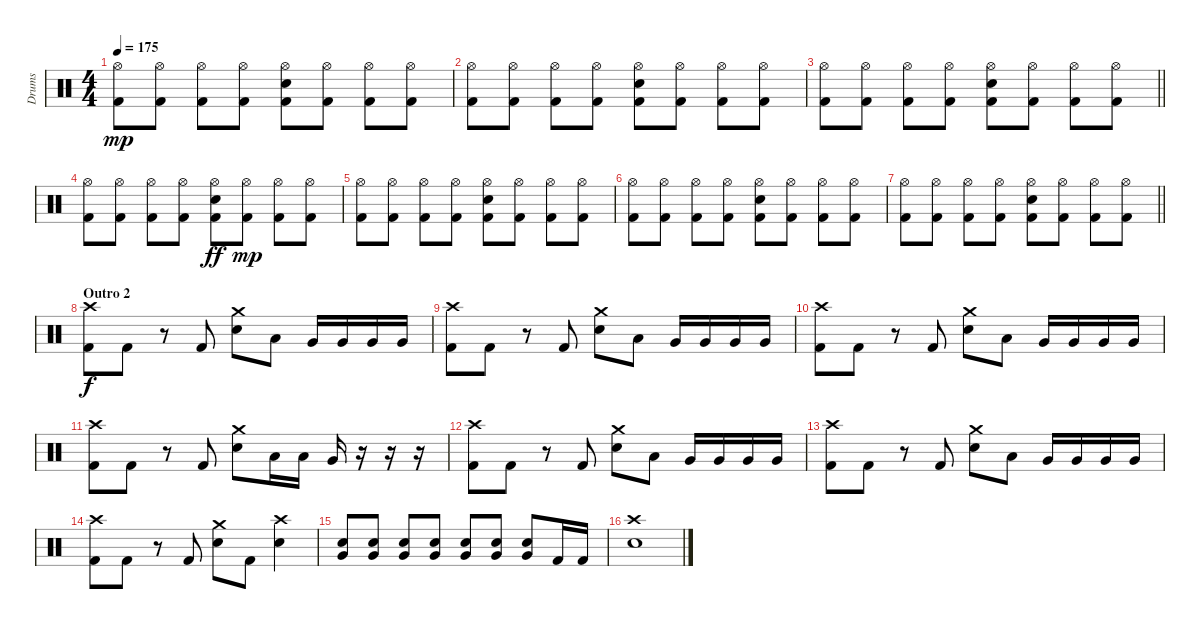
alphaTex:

\track ("Drums" "Drums") {instrument percussion}
\staff {score}
\articulation defaults
\ts (4 4)
\tempo 175
\clef neutral
\ks c
("Hi-Hat (open)" "Kick (hit) 2").8{dy mp} ("Hi-Hat (open)" "Kick (hit) 2").8 ("Hi-Hat (open)" "Kick (hit) 2").8 ("Hi-Hat (open)" "Kick (hit) 2").8 ("Hi-Hat (open)" "Electric Snare (hit)" "Kick (hit) 2").8 ("Hi-Hat (open)" "Kick (hit) 2").8 ("Hi-Hat (open)" "Kick (hit) 2").8 ("Hi-Hat (open)" "Kick (hit) 2").8 |
("Hi-Hat (open)" "Kick (hit) 2").8 ("Hi-Hat (open)" "Kick (hit) 2").8 ("Hi-Hat (open)" "Kick (hit) 2").8 ("Hi-Hat (open)" "Kick (hit) 2").8 ("Hi-Hat (open)" "Electric Snare (hit)" "Kick (hit) 2").8 ("Hi-Hat (open)" "Kick (hit) 2").8 ("Hi-Hat (open)" "Kick (hit) 2").8 ("Hi-Hat (open)" "Kick (hit) 2").8 |
\barLineRight lightlight
("Hi-Hat (open)" "Kick (hit) 2").8 ("Hi-Hat (open)" "Kick (hit) 2").8 ("Hi-Hat (open)" "Kick (hit) 2").8 ("Hi-Hat (open)" "Kick (hit) 2").8 ("Hi-Hat (open)" "Electric Snare (hit)" "Kick (hit) 2").8 ("Hi-Hat (open)" "Kick (hit) 2").8 ("Hi-Hat (open)" "Kick (hit) 2").8 ("Hi-Hat (open)" "Kick (hit) 2").8 |
("Hi-Hat (open)" "Kick (hit) 2").8 ("Hi-Hat (open)" "Kick (hit) 2").8 ("Hi-Hat (open)" "Kick (hit) 2").8 ("Hi-Hat (open)" "Kick (hit) 2").8 ("Hi-Hat (open)" "Electric Snare (hit)" "Kick (hit) 2").8{dy ff} ("Hi-Hat (open)" "Kick (hit) 2").8{dy mp} ("Hi-Hat (open)" "Kick (hit) 2").8 ("Hi-Hat (open)" "Kick (hit) 2").8 |
("Hi-Hat (open)" "Kick (hit) 2").8 ("Hi-Hat (open)" "Kick (hit) 2").8 ("Hi-Hat (open)" "Kick (hit) 2").8 ("Hi-Hat (open)" "Kick (hit) 2").8 ("Hi-Hat (open)" "Electric Snare (hit)" "Kick (hit) 2").8 ("Hi-Hat (open)" "Kick (hit) 2").8 ("Hi-Hat (open)" "Kick (hit) 2").8 ("Hi-Hat (open)" "Kick (hit) 2").8 |
("Hi-Hat (open)" "Kick (hit) 2").8 ("Hi-Hat (open)" "Kick (hit) 2").8 ("Hi-Hat (open)" "Kick (hit) 2").8 ("Hi-Hat (open)" "Kick (hit) 2").8 ("Hi-Hat (open)" "Electric Snare (hit)" "Kick (hit) 2").8 ("Hi-Hat (open)" "Kick (hit) 2").8 ("Hi-Hat (open)" "Kick (hit) 2").8 ("Hi-Hat (open)" "Kick (hit) 2").8 |
\barLineRight lightlight
("Hi-Hat (open)" "Kick (hit) 2").8 ("Hi-Hat (open)" "Kick (hit) 2").8 ("Hi-Hat (open)" "Kick (hit) 2").8 ("Hi-Hat (open)" "Kick (hit) 2").8 ("Hi-Hat (open)" "Electric Snare (hit)" "Kick (hit) 2").8 ("Hi-Hat (open)" "Kick (hit) 2").8 ("Hi-Hat (open)" "Kick (hit) 2").8 ("Hi-Hat (open)" "Kick (hit) 2").8 |
\section ("" "Outro 2")
("Crash high (hit)" "Kick (hit) 2").8{dy f} "Kick (hit) 2".8 r.8 "Kick (hit) 2".8 ("Crash medium (hit)" "Electric Snare (hit)").8 "Low Tom (hit)".8 "Very Low Tom (hit)".16 "Very Low Tom (hit)".16 "Very Low Tom (hit)".16 "Very Low Tom (hit)".16 |
("Crash high (hit)" "Kick (hit) 2").8 "Kick (hit) 2".8 r.8 "Kick (hit) 2".8 ("Crash medium (hit)" "Electric Snare (hit)").8 "Low Tom (hit)".8 "Very Low Tom (hit)".16 "Very Low Tom (hit)".16 "Very Low Tom (hit)".16 "Very Low Tom (hit)".16 |
("Crash high (hit)" "Kick (hit) 2").8 "Kick (hit) 2".8 r.8 "Kick (hit) 2".8 ("Crash medium (hit)" "Electric Snare (hit)").8 "Low Tom (hit)".8 "Very Low Tom (hit)".16 "Very Low Tom (hit)".16 "Very Low Tom (hit)".16 "Very Low Tom (hit)".16 |
("Crash high (hit)" "Kick (hit) 2").8 "Kick (hit) 2".8 r.8 "Kick (hit) 2".8 ("Crash medium (hit)" "Electric Snare (hit)").8 "Low Tom (hit)".16 "Low Tom (hit)".16 "Very Low Tom (hit)".16 r.16 r.16 r.16 |
("Crash high (hit)" "Kick (hit) 2").8 "Kick (hit) 2".8 r.8 "Kick (hit) 2".8 ("Crash medium (hit)" "Electric Snare (hit)").8 "Low Tom (hit)".8 "Very Low Tom (hit)".16 "Very Low Tom (hit)".16 "Very Low Tom (hit)".16 "Very Low Tom (hit)".16 |
("Crash high (hit)" "Kick (hit) 2").8 "Kick (hit) 2".8 r.8 "Kick (hit) 2".8 ("Crash medium (hit)" "Electric Snare (hit)").8 "Low Tom (hit)".8 "Very Low Tom (hit)".16 "Very Low Tom (hit)".16 "Very Low Tom (hit)".16 "Very Low Tom (hit)".16 |
("Crash high (hit)" "Kick (hit) 2").8 "Kick (hit) 2".8 r.8 "Kick (hit) 2".8 ("Crash medium (hit)" "Electric Snare (hit)").8 "Kick (hit) 2".8 ("Crash high (hit)" "Electric Snare (hit)").4 |
("Electric Snare (hit)" "Very Low Tom (hit)").8 ("Electric Snare (hit)" "Very Low Tom (hit)").8 ("Electric Snare (hit)" "Very Low Tom (hit)").8 ("Electric Snare (hit)" "Very Low Tom (hit)").8 ("Electric Snare (hit)" "Very Low Tom (hit)").8 ("Electric Snare (hit)" "Very Low Tom (hit)").8 ("Electric Snare (hit)" "Very Low Tom (hit)").8 "Kick (hit) 2".16 "Kick (hit) 2".16 |
("Crash high (hit)" "Electric Snare (hit)").1
